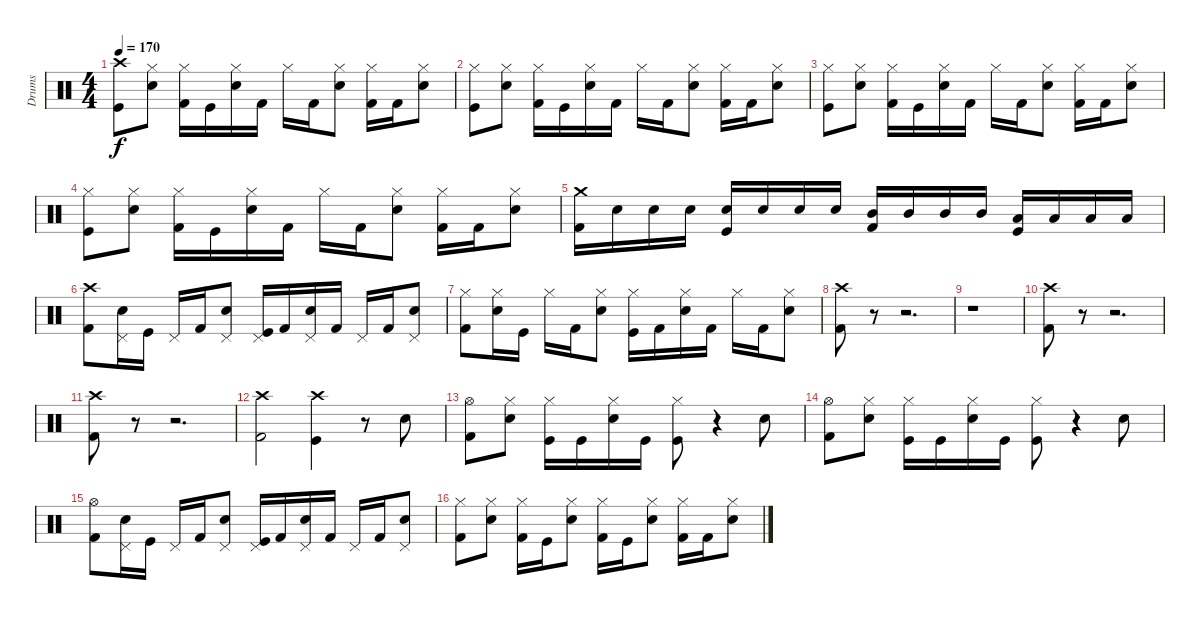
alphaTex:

\track ("Drums" "Drums") {instrument percussion}
\staff {score}
\articulation defaults
\ts (4 4)
\tempo 170
\clef neutral
\ks c
("Crash high (hit)" "Kick (hit)").8{dy f} ("Hi-Hat (closed)" "Electric Snare (hit)").8 ("Hi-Hat (closed)" "Kick (hit) 2").16 "Kick (hit)".16 ("Hi-Hat (closed)" "Electric Snare (hit)").16 "Kick (hit) 2".16 "Hi-Hat (closed)".16 "Kick (hit) 2".16 ("Hi-Hat (closed)" "Electric Snare (hit)").8 ("Hi-Hat (closed)" "Kick (hit) 2").16 "Kick (hit) 2".16 ("Hi-Hat (closed)" "Electric Snare (hit)").8 |
("Hi-Hat (closed)" "Kick (hit)").8 ("Hi-Hat (closed)" "Electric Snare (hit)").8 ("Hi-Hat (closed)" "Kick (hit) 2").16 "Kick (hit)".16 ("Hi-Hat (closed)" "Electric Snare (hit)").16 "Kick (hit) 2".16 "Hi-Hat (closed)".16 "Kick (hit) 2".16 ("Hi-Hat (closed)" "Electric Snare (hit)").8 ("Hi-Hat (closed)" "Kick (hit) 2").16 "Kick (hit) 2".16 ("Hi-Hat (closed)" "Electric Snare (hit)").8 |
("Hi-Hat (closed)" "Kick (hit)").8 ("Hi-Hat (closed)" "Electric Snare (hit)").8 ("Hi-Hat (closed)" "Kick (hit) 2").16 "Kick (hit)".16 ("Hi-Hat (closed)" "Electric Snare (hit)").16 "Kick (hit) 2".16 "Hi-Hat (closed)".16 "Kick (hit) 2".16 ("Hi-Hat (closed)" "Electric Snare (hit)").8 ("Hi-Hat (closed)" "Kick (hit) 2").16 "Kick (hit) 2".16 ("Hi-Hat (closed)" "Electric Snare (hit)").8 |
("Hi-Hat (closed)" "Kick (hit)").8 ("Hi-Hat (closed)" "Electric Snare (hit)").8 ("Hi-Hat (closed)" "Kick (hit) 2").16 "Kick (hit)".16 ("Hi-Hat (closed)" "Electric Snare (hit)").16 "Kick (hit) 2".16 "Hi-Hat (closed)".16 "Kick (hit) 2".16 ("Hi-Hat (closed)" "Electric Snare (hit)").8 ("Hi-Hat (closed)" "Kick (hit) 2").16 "Kick (hit) 2".16 ("Hi-Hat (closed)" "Electric Snare (hit)").8 |
("Crash medium (hit)" "Kick (hit) 2").16 "Electric Snare (hit)".16 "Electric Snare (hit)".16 "Electric Snare (hit)".16 ("Electric Snare (hit)" "Kick (hit)").16 "Electric Snare (hit)".16 "Electric Snare (hit)".16 "Electric Snare (hit)".16 ("Mid Tom (hit)" "Kick (hit) 2").16 "Mid Tom (hit)".16 "Mid Tom (hit)".16 "Mid Tom (hit)".16 ("Low Tom (hit)" "Kick (hit)").16 "Low Tom (hit)".16 "Low Tom (hit)".16 "Low Tom (hit)".16 |
("Crash high (hit)" "Kick (hit) 2").8 ("Pedal Hi-Hat (hit)" "Electric Snare (hit)").16 "Kick (hit)".16 "Pedal Hi-Hat (hit)".16 "Kick (hit) 2".16 ("Pedal Hi-Hat (hit)" "Electric Snare (hit)").8 ("Pedal Hi-Hat (hit)" "Kick (hit)").16 "Kick (hit) 2".16 ("Pedal Hi-Hat (hit)" "Electric Snare (hit)").16 "Kick (hit) 2".16 "Pedal Hi-Hat (hit)".16 "Kick (hit) 2".16 ("Pedal Hi-Hat (hit)" "Electric Snare (hit)").8 |
("Hi-Hat (closed)" "Kick (hit) 2").8 ("Hi-Hat (closed)" "Electric Snare (hit)").16 "Kick (hit)".16 "Hi-Hat (closed)".16 "Kick (hit) 2".16 ("Hi-Hat (closed)" "Electric Snare (hit)").8 ("Hi-Hat (closed)" "Kick (hit)").16 "Kick (hit) 2".16 ("Hi-Hat (closed)" "Electric Snare (hit)").16 "Kick (hit) 2".16 "Hi-Hat (closed)".16 "Kick (hit) 2".16 ("Hi-Hat (closed)" "Electric Snare (hit)").8 |
("Crash high (hit)" "Kick (hit) 2").8 r.8 r.2{d} |
r.1 |
("Crash high (hit)" "Kick (hit) 2").8 r.8 r.2{d} |
("Crash high (hit)" "Kick (hit) 2").8 r.8 r.2{d} |
("Crash high (hit)" "Kick (hit) 2").2 ("Crash high (hit)" "Kick (hit)").4 r.8 "Electric Snare (hit)".8 |
("Hi-Hat (open)" "Kick (hit) 2").8 ("Hi-Hat (closed)" "Electric Snare (hit)").8 ("Hi-Hat (closed)" "Kick (hit)").16 "Kick (hit)".16 ("Hi-Hat (closed)" "Electric Snare (hit)").16 "Kick (hit)".16 ("Hi-Hat (closed)" "Kick (hit)").8 r.4 "Electric Snare (hit)".8 |
("Hi-Hat (open)" "Kick (hit) 2").8 ("Hi-Hat (closed)" "Electric Snare (hit)").8 ("Hi-Hat (closed)" "Kick (hit)").16 "Kick (hit)".16 ("Hi-Hat (closed)" "Electric Snare (hit)").16 "Kick (hit)".16 ("Hi-Hat (closed)" "Kick (hit)").8 r.4 "Electric Snare (hit)".8 |
("Hi-Hat (open)" "Kick (hit) 2").8 ("Pedal Hi-Hat (hit)" "Electric Snare (hit)").16 "Kick (hit)".16 "Pedal Hi-Hat (hit)".16 "Kick (hit) 2".16 ("Pedal Hi-Hat (hit)" "Electric Snare (hit)").8 ("Pedal Hi-Hat (hit)" "Kick (hit)").16 "Kick (hit) 2".16 ("Pedal Hi-Hat (hit)" "Electric Snare (hit)").16 "Kick (hit) 2".16 "Pedal Hi-Hat (hit)".16 "Kick (hit) 2".16 ("Pedal Hi-Hat (hit)" "Electric Snare (hit)").8 |
("Hi-Hat (closed)" "Kick (hit) 2").8 ("Hi-Hat (closed)" "Electric Snare (hit)").8 ("Hi-Hat (closed)" "Kick (hit) 2").16 "Kick (hit)".16 ("Hi-Hat (closed)" "Electric Snare (hit)").8 ("Hi-Hat (closed)" "Kick (hit) 2").16 "Kick (hit)".16 ("Hi-Hat (closed)" "Electric Snare (hit)").8 ("Hi-Hat (closed)" "Kick (hit) 2").16 "Kick (hit) 2".16 ("Hi-Hat (closed)" "Electric Snare (hit)").8
